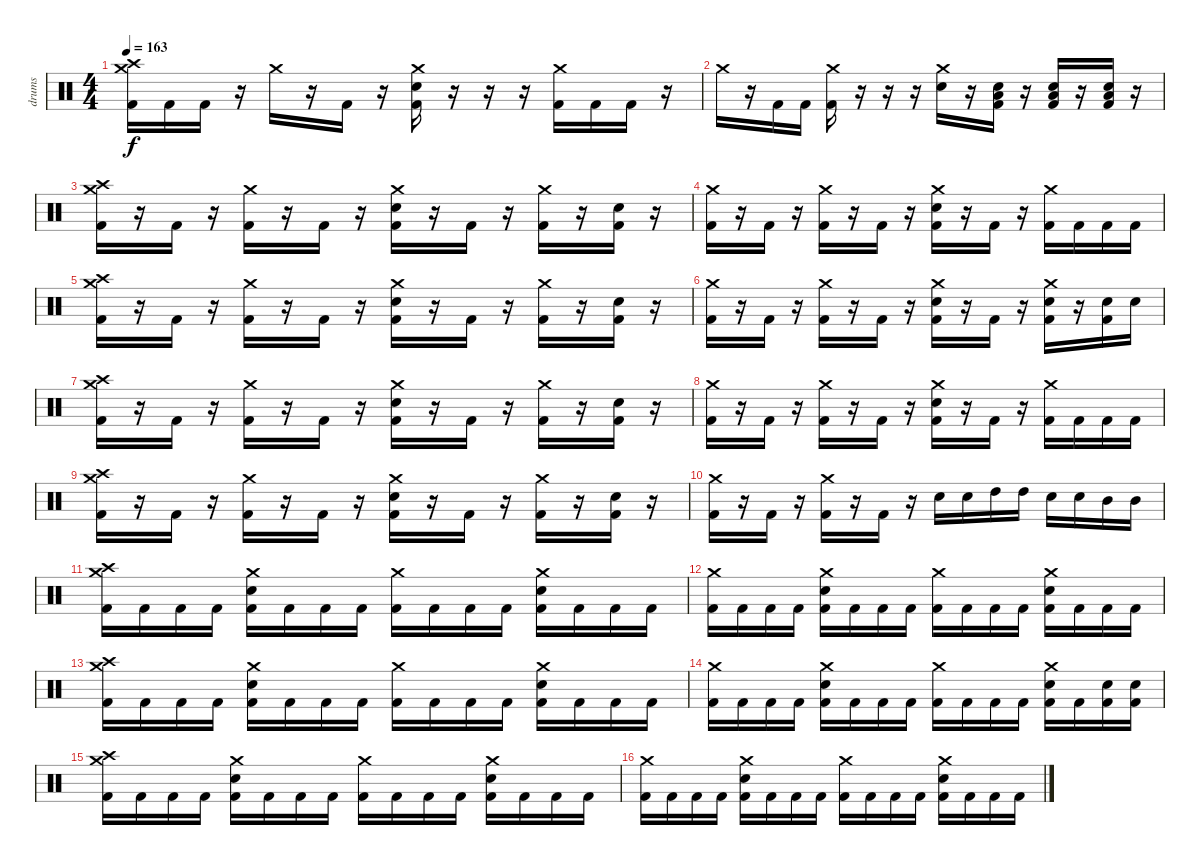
\track ("drums" "drums") {instrument percussion}
\staff {score}
\articulation defaults
\ts (4 4)
\tempo 163
\clef neutral
\ks c
("Crash medium (hit)" "Crash high (hit)" "Kick (hit) 2").16{dy f} "Kick (hit) 2".16 "Kick (hit) 2".16 r.16 "Crash medium (hit)".16 r.16 "Kick (hit) 2".16 r.16 ("Crash medium (hit)" "Electric Snare (hit)" "Kick (hit) 2").16 r.16 r.16 r.16 ("Crash medium (hit)" "Kick (hit) 2").16 "Kick (hit) 2".16 "Kick (hit) 2".16 r.16 |
"Crash medium (hit)".16 r.16 "Kick (hit) 2".16 "Kick (hit) 2".16 ("Crash medium (hit)" "Kick (hit) 2").16 r.16 r.16 r.16 ("Crash medium (hit)" "Electric Snare (hit)").16 r.16 ("Low Floor Tom (hit)" "Electric Snare (hit)" "Kick (hit) 2").16 r.16 ("Low Floor Tom (hit)" "Electric Snare (hit)" "Kick (hit) 2").16 r.16 ("Low Floor Tom (hit)" "Electric Snare (hit)" "Kick (hit) 2").16 r.16 |
("Crash medium (hit)" "Crash high (hit)" "Kick (hit) 2").16 r.16 "Kick (hit) 2".16 r.16 ("Crash medium (hit)" "Kick (hit) 2").16 r.16 "Kick (hit) 2".16 r.16 ("Crash medium (hit)" "Electric Snare (hit)" "Kick (hit) 2").16 r.16 "Kick (hit) 2".16 r.16 ("Crash medium (hit)" "Kick (hit) 2").16 r.16 ("Electric Snare (hit)" "Kick (hit) 2").16 r.16 |
("Crash medium (hit)" "Kick (hit) 2").16 r.16 "Kick (hit) 2".16 r.16 ("Crash medium (hit)" "Kick (hit) 2").16 r.16 "Kick (hit) 2".16 r.16 ("Crash medium (hit)" "Electric Snare (hit)" "Kick (hit) 2").16 r.16 "Kick (hit) 2".16 r.16 ("Crash medium (hit)" "Kick (hit) 2").16 "Kick (hit) 2".16 "Kick (hit) 2".16 "Kick (hit) 2".16 |
("Crash medium (hit)" "Crash high (hit)" "Kick (hit) 2").16 r.16 "Kick (hit) 2".16 r.16 ("Crash medium (hit)" "Kick (hit) 2").16 r.16 "Kick (hit) 2".16 r.16 ("Crash medium (hit)" "Electric Snare (hit)" "Kick (hit) 2").16 r.16 "Kick (hit) 2".16 r.16 ("Crash medium (hit)" "Kick (hit) 2").16 r.16 ("Electric Snare (hit)" "Kick (hit) 2").16 r.16 |
("Crash medium (hit)" "Kick (hit) 2").16 r.16 "Kick (hit) 2".16 r.16 ("Crash medium (hit)" "Kick (hit) 2").16 r.16 "Kick (hit) 2".16 r.16 ("Crash medium (hit)" "Electric Snare (hit)" "Kick (hit) 2").16 r.16 "Kick (hit) 2".16 r.16 ("Crash medium (hit)" "Electric Snare (hit)" "Kick (hit) 2").16 r.16 ("Electric Snare (hit)" "Kick (hit) 2").16 "Electric Snare (hit)".16 |
("Crash medium (hit)" "Crash high (hit)" "Kick (hit) 2").16 r.16 "Kick (hit) 2".16 r.16 ("Crash medium (hit)" "Kick (hit) 2").16 r.16 "Kick (hit) 2".16 r.16 ("Crash medium (hit)" "Electric Snare (hit)" "Kick (hit) 2").16 r.16 "Kick (hit) 2".16 r.16 ("Crash medium (hit)" "Kick (hit) 2").16 r.16 ("Electric Snare (hit)" "Kick (hit) 2").16 r.16 |
("Crash medium (hit)" "Kick (hit) 2").16 r.16 "Kick (hit) 2".16 r.16 ("Crash medium (hit)" "Kick (hit) 2").16 r.16 "Kick (hit) 2".16 r.16 ("Crash medium (hit)" "Electric Snare (hit)" "Kick (hit) 2").16 r.16 "Kick (hit) 2".16 r.16 ("Crash medium (hit)" "Kick (hit) 2").16 "Kick (hit) 2".16 "Kick (hit) 2".16 "Kick (hit) 2".16 |
("Crash medium (hit)" "Crash high (hit)" "Kick (hit) 2").16 r.16 "Kick (hit) 2".16 r.16 ("Crash medium (hit)" "Kick (hit) 2").16 r.16 "Kick (hit) 2".16 r.16 ("Crash medium (hit)" "Electric Snare (hit)" "Kick (hit) 2").16 r.16 "Kick (hit) 2".16 r.16 ("Crash medium (hit)" "Kick (hit) 2").16 r.16 ("Electric Snare (hit)" "Kick (hit) 2").16 r.16 |
("Crash medium (hit)" "Kick (hit) 2").16 r.16 "Kick (hit) 2".16 r.16 ("Crash medium (hit)" "Kick (hit) 2").16 r.16 "Kick (hit) 2".16 r.16 "Electric Snare (hit)".16 "Electric Snare (hit)".16 "High Tom (hit)".16 "High Tom (hit)".16 "Electric Snare (hit)".16 "Electric Snare (hit)".16 "Mid Tom (hit)".16 "Mid Tom (hit)".16 |
("Crash medium (hit)" "Crash high (hit)" "Kick (hit) 2").16 "Kick (hit) 2".16 "Kick (hit) 2".16 "Kick (hit) 2".16 ("Crash medium (hit)" "Electric Snare (hit)" "Kick (hit) 2").16 "Kick (hit) 2".16 "Kick (hit) 2".16 "Kick (hit) 2".16 ("Crash medium (hit)" "Kick (hit) 2").16 "Kick (hit) 2".16 "Kick (hit) 2".16 "Kick (hit) 2".16 ("Crash medium (hit)" "Electric Snare (hit)" "Kick (hit) 2").16 "Kick (hit) 2".16 "Kick (hit) 2".16 "Kick (hit) 2".16 |
("Crash medium (hit)" "Kick (hit) 2").16 "Kick (hit) 2".16 "Kick (hit) 2".16 "Kick (hit) 2".16 ("Crash medium (hit)" "Electric Snare (hit)" "Kick (hit) 2").16 "Kick (hit) 2".16 "Kick (hit) 2".16 "Kick (hit) 2".16 ("Crash medium (hit)" "Kick (hit) 2").16 "Kick (hit) 2".16 "Kick (hit) 2".16 "Kick (hit) 2".16 ("Crash medium (hit)" "Electric Snare (hit)" "Kick (hit) 2").16 "Kick (hit) 2".16 "Kick (hit) 2".16 "Kick (hit) 2".16 |
("Crash medium (hit)" "Crash high (hit)" "Kick (hit) 2").16 "Kick (hit) 2".16 "Kick (hit) 2".16 "Kick (hit) 2".16 ("Crash medium (hit)" "Electric Snare (hit)" "Kick (hit) 2").16 "Kick (hit) 2".16 "Kick (hit) 2".16 "Kick (hit) 2".16 ("Crash medium (hit)" "Kick (hit) 2").16 "Kick (hit) 2".16 "Kick (hit) 2".16 "Kick (hit) 2".16 ("Crash medium (hit)" "Electric Snare (hit)" "Kick (hit) 2").16 "Kick (hit) 2".16 "Kick (hit) 2".16 "Kick (hit) 2".16 |
("Crash medium (hit)" "Kick (hit) 2").16 "Kick (hit) 2".16 "Kick (hit) 2".16 "Kick (hit) 2".16 ("Crash medium (hit)" "Electric Snare (hit)" "Kick (hit) 2").16 "Kick (hit) 2".16 "Kick (hit) 2".16 "Kick (hit) 2".16 ("Crash medium (hit)" "Kick (hit) 2").16 "Kick (hit) 2".16 "Kick (hit) 2".16 "Kick (hit) 2".16 ("Crash medium (hit)" "Electric Snare (hit)" "Kick (hit) 2").16 "Kick (hit) 2".16 ("Electric Snare (hit)" "Kick (hit) 2").16 ("Electric Snare (hit)" "Kick (hit) 2").16 |
("Crash medium (hit)" "Crash high (hit)" "Kick (hit) 2").16 "Kick (hit) 2".16 "Kick (hit) 2".16 "Kick (hit) 2".16 ("Crash medium (hit)" "Electric Snare (hit)" "Kick (hit) 2").16 "Kick (hit) 2".16 "Kick (hit) 2".16 "Kick (hit) 2".16 ("Crash medium (hit)" "Kick (hit) 2").16 "Kick (hit) 2".16 "Kick (hit) 2".16 "Kick (hit) 2".16 ("Crash medium (hit)" "Electric Snare (hit)" "Kick (hit) 2").16 "Kick (hit) 2".16 "Kick (hit) 2".16 "Kick (hit) 2".16 |
("Crash medium (hit)" "Kick (hit) 2").16 "Kick (hit) 2".16 "Kick (hit) 2".16 "Kick (hit) 2".16 ("Crash medium (hit)" "Electric Snare (hit)" "Kick (hit) 2").16 "Kick (hit) 2".16 "Kick (hit) 2".16 "Kick (hit) 2".16 ("Crash medium (hit)" "Kick (hit) 2").16 "Kick (hit) 2".16 "Kick (hit) 2".16 "Kick (hit) 2".16 ("Crash medium (hit)" "Electric Snare (hit)" "Kick (hit) 2").16 "Kick (hit) 2".16 "Kick (hit) 2".16 "Kick (hit) 2".16
